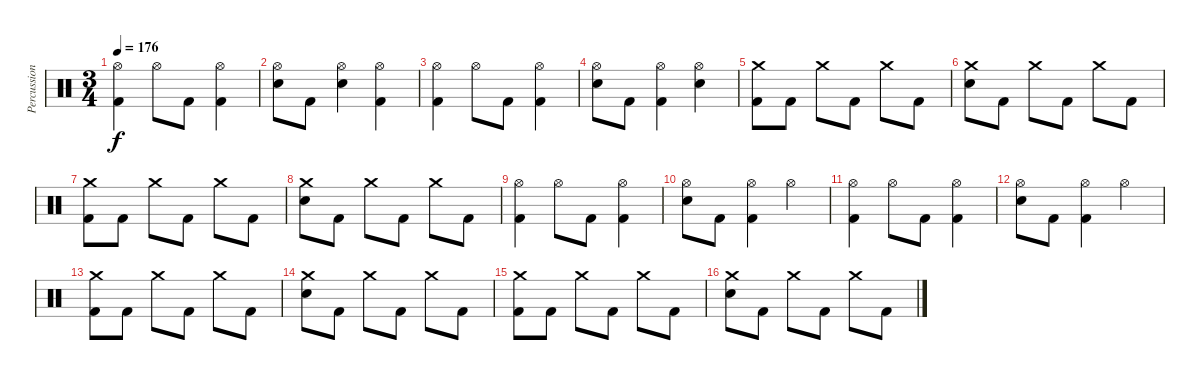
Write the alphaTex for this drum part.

\track ("Percussion" "Percussion") {instrument percussion}
\staff {score}
\articulation defaults
\ts (3 4)
\tempo 176
\clef neutral
\ks c
("Hi-Hat (open)" "Kick (hit) 2").4{dy f} "Hi-Hat (open)".8 "Kick (hit) 2".8 ("Hi-Hat (open)" "Kick (hit) 2").4 |
("Hi-Hat (open)" "Electric Snare (hit)").8 "Kick (hit) 2".8 ("Hi-Hat (open)" "Electric Snare (hit)").4 ("Hi-Hat (open)" "Kick (hit) 2").4 |
("Hi-Hat (open)" "Kick (hit) 2").4 "Hi-Hat (open)".8 "Kick (hit) 2".8 ("Hi-Hat (open)" "Kick (hit) 2").4 |
("Hi-Hat (open)" "Electric Snare (hit)").8 "Kick (hit) 2".8 ("Hi-Hat (open)" "Kick (hit) 2").4 ("Hi-Hat (open)" "Electric Snare (hit)").4 |
("Crash medium (hit)" "Kick (hit) 2").8 "Kick (hit) 2".8 "Crash medium (hit)".8 "Kick (hit) 2".8 "Crash medium (hit)".8 "Kick (hit) 2".8 |
("Crash medium (hit)" "Electric Snare (hit)").8 "Kick (hit) 2".8 "Crash medium (hit)".8 "Kick (hit) 2".8 "Crash medium (hit)".8 "Kick (hit) 2".8 |
("Crash medium (hit)" "Kick (hit) 2").8 "Kick (hit) 2".8 "Crash medium (hit)".8 "Kick (hit) 2".8 "Crash medium (hit)".8 "Kick (hit) 2".8 |
("Crash medium (hit)" "Electric Snare (hit)").8 "Kick (hit) 2".8 "Crash medium (hit)".8 "Kick (hit) 2".8 "Crash medium (hit)".8 "Kick (hit) 2".8 |
("Hi-Hat (open)" "Kick (hit) 2").4 "Hi-Hat (open)".8 "Kick (hit) 2".8 ("Hi-Hat (open)" "Kick (hit) 2").4 |
("Hi-Hat (open)" "Electric Snare (hit)").8 "Kick (hit) 2".8 ("Hi-Hat (open)" "Kick (hit) 2").4 "Hi-Hat (open)".4 |
("Hi-Hat (open)" "Kick (hit) 2").4 "Hi-Hat (open)".8 "Kick (hit) 2".8 ("Hi-Hat (open)" "Kick (hit) 2").4 |
("Hi-Hat (open)" "Electric Snare (hit)").8 "Kick (hit) 2".8 ("Hi-Hat (open)" "Kick (hit) 2").4 "Hi-Hat (open)".4 |
("Crash medium (hit)" "Kick (hit) 2").8 "Kick (hit) 2".8 "Crash medium (hit)".8 "Kick (hit) 2".8 "Crash medium (hit)".8 "Kick (hit) 2".8 |
("Crash medium (hit)" "Electric Snare (hit)").8 "Kick (hit) 2".8 "Crash medium (hit)".8 "Kick (hit) 2".8 "Crash medium (hit)".8 "Kick (hit) 2".8 |
("Crash medium (hit)" "Kick (hit) 2").8 "Kick (hit) 2".8 "Crash medium (hit)".8 "Kick (hit) 2".8 "Crash medium (hit)".8 "Kick (hit) 2".8 |
("Crash medium (hit)" "Electric Snare (hit)").8 "Kick (hit) 2".8 "Crash medium (hit)".8 "Kick (hit) 2".8 "Crash medium (hit)".8 "Kick (hit) 2".8
